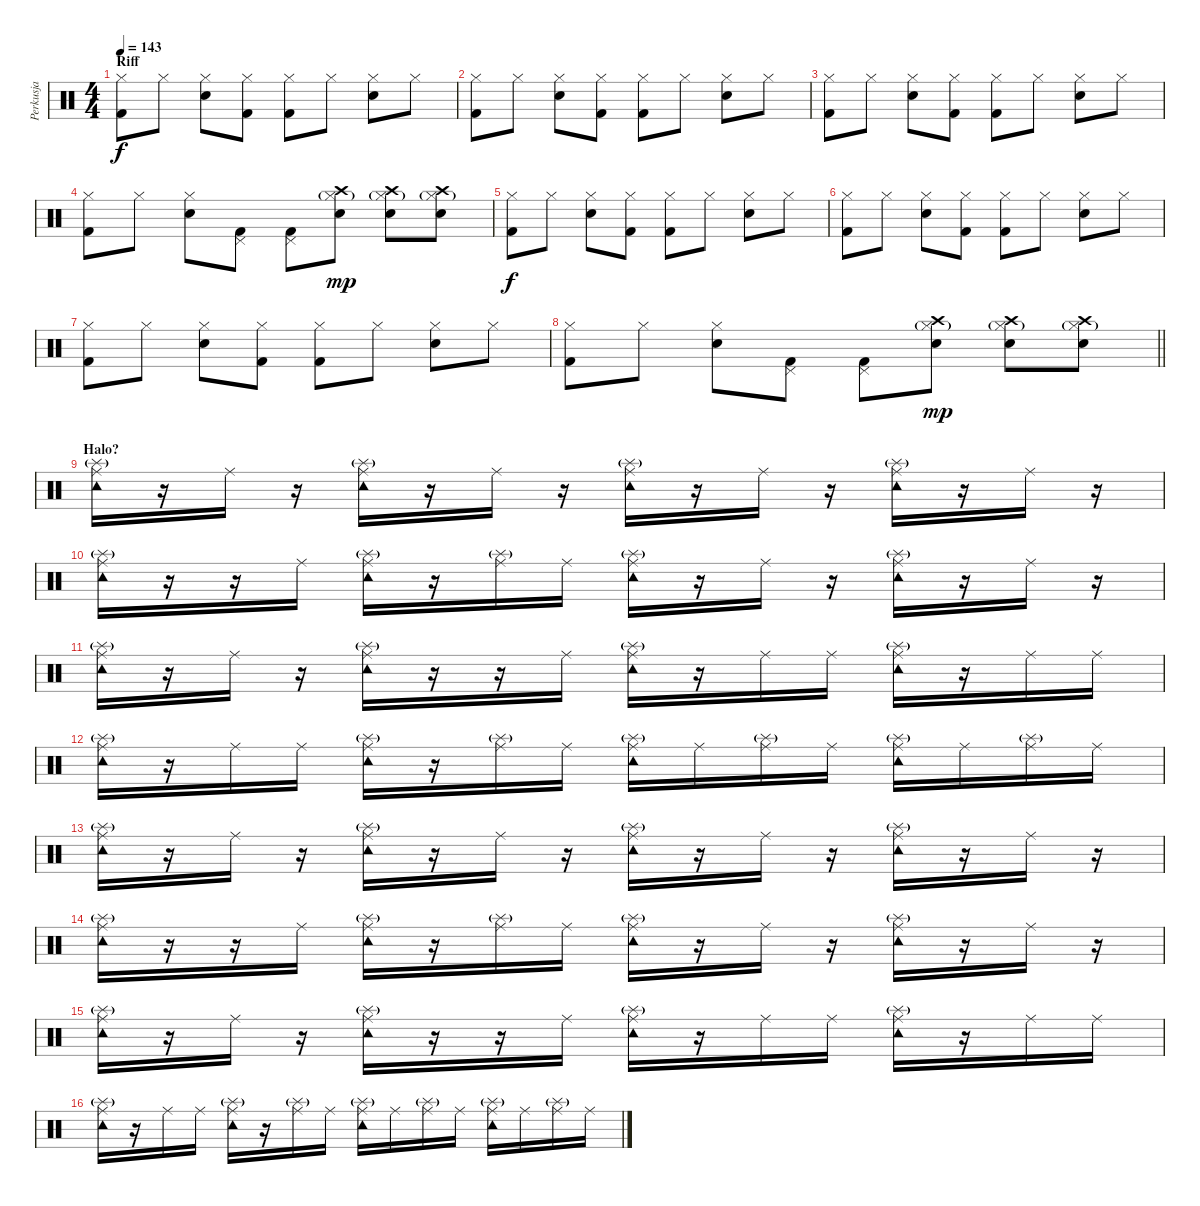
\track ("Perkusja" "Perkusja") {instrument percussion}
\staff {score}
\articulation defaults
\ts (4 4)
\section ("" "Riff")
\tempo 143
\clef neutral
\ks c
("Hi-Hat (closed)" "Kick (hit) 2").8{dy f} "Hi-Hat (closed)".8 ("Hi-Hat (closed)" "Electric Snare (hit)").8 ("Hi-Hat (closed)" "Kick (hit) 2").8 ("Hi-Hat (closed)" "Kick (hit) 2").8 "Hi-Hat (closed)".8 ("Hi-Hat (closed)" "Electric Snare (hit)").8 "Hi-Hat (closed)".8 |
("Hi-Hat (closed)" "Kick (hit) 2").8 "Hi-Hat (closed)".8 ("Hi-Hat (closed)" "Electric Snare (hit)").8 ("Hi-Hat (closed)" "Kick (hit) 2").8 ("Hi-Hat (closed)" "Kick (hit) 2").8 "Hi-Hat (closed)".8 ("Hi-Hat (closed)" "Electric Snare (hit)").8 "Hi-Hat (closed)".8 |
("Hi-Hat (closed)" "Kick (hit) 2").8 "Hi-Hat (closed)".8 ("Hi-Hat (closed)" "Electric Snare (hit)").8 ("Hi-Hat (closed)" "Kick (hit) 2").8 ("Hi-Hat (closed)" "Kick (hit) 2").8 "Hi-Hat (closed)".8 ("Hi-Hat (closed)" "Electric Snare (hit)").8 "Hi-Hat (closed)".8 |
("Hi-Hat (closed)" "Kick (hit) 2").8 "Hi-Hat (closed)".8 ("Hi-Hat (closed)" "Electric Snare (hit)").8 ("Pedal Hi-Hat (hit)" "Kick (hit) 2").8 ("Pedal Hi-Hat (hit)" "Kick (hit) 2").8 ("Crash high (hit)" "Hi-Hat (closed)"{g} "Snare (hit) 2").8{dy mp} ("Crash high (hit)" "Hi-Hat (closed)"{g} "Snare (hit) 2").8 ("Crash high (hit)" "Hi-Hat (closed)"{g} "Snare (hit) 2").8 |
("Hi-Hat (closed)" "Kick (hit) 2").8{dy f} "Hi-Hat (closed)".8 ("Hi-Hat (closed)" "Electric Snare (hit)").8 ("Hi-Hat (closed)" "Kick (hit) 2").8 ("Hi-Hat (closed)" "Kick (hit) 2").8 "Hi-Hat (closed)".8 ("Hi-Hat (closed)" "Electric Snare (hit)").8 "Hi-Hat (closed)".8 |
("Hi-Hat (closed)" "Kick (hit) 2").8 "Hi-Hat (closed)".8 ("Hi-Hat (closed)" "Electric Snare (hit)").8 ("Hi-Hat (closed)" "Kick (hit) 2").8 ("Hi-Hat (closed)" "Kick (hit) 2").8 "Hi-Hat (closed)".8 ("Hi-Hat (closed)" "Electric Snare (hit)").8 "Hi-Hat (closed)".8 |
("Hi-Hat (closed)" "Kick (hit) 2").8 "Hi-Hat (closed)".8 ("Hi-Hat (closed)" "Electric Snare (hit)").8 ("Hi-Hat (closed)" "Kick (hit) 2").8 ("Hi-Hat (closed)" "Kick (hit) 2").8 "Hi-Hat (closed)".8 ("Hi-Hat (closed)" "Electric Snare (hit)").8 "Hi-Hat (closed)".8 |
\barLineRight lightlight
("Hi-Hat (closed)" "Kick (hit) 2").8 "Hi-Hat (closed)".8 ("Hi-Hat (closed)" "Electric Snare (hit)").8 ("Pedal Hi-Hat (hit)" "Kick (hit) 2").8 ("Pedal Hi-Hat (hit)" "Kick (hit) 2").8 ("Crash high (hit)" "Hi-Hat (closed)"{g} "Snare (hit) 2").8{dy mp} ("Crash high (hit)" "Hi-Hat (closed)"{g} "Snare (hit) 2").8 ("Crash high (hit)" "Hi-Hat (closed)"{g} "Snare (hit) 2").8 |
\section ("" "Halo?")
("Ride (middle)" "Tambourine (hit)" "Splash (hit)"{g}).16 r.16 "Ride (middle)".16 r.16 ("Ride (middle)" "Tambourine (hit)" "Splash (hit)"{g}).16 r.16 "Ride (middle)".16 r.16 ("Ride (middle)" "Tambourine (hit)" "Splash (hit)"{g}).16 r.16 "Ride (middle)".16 r.16 ("Ride (middle)" "Tambourine (hit)" "Splash (hit)"{g}).16 r.16 "Ride (middle)".16 r.16 |
("Ride (middle)" "Tambourine (hit)" "Splash (hit)"{g}).16 r.16 r.16 "Ride (middle)".16 ("Ride (middle)" "Tambourine (hit)" "Splash (hit)"{g}).16 r.16 ("Ride (middle)" "Splash (hit)"{g}).16 "Ride (middle)".16 ("Ride (middle)" "Tambourine (hit)" "Splash (hit)"{g}).16 r.16 "Ride (middle)".16 r.16 ("Ride (middle)" "Tambourine (hit)" "Splash (hit)"{g}).16 r.16 "Ride (middle)".16 r.16 |
("Ride (middle)" "Tambourine (hit)" "Splash (hit)"{g}).16 r.16 "Ride (middle)".16 r.16 ("Ride (middle)" "Tambourine (hit)" "Splash (hit)"{g}).16 r.16 r.16 "Ride (middle)".16 ("Ride (middle)" "Tambourine (hit)" "Splash (hit)"{g}).16 r.16 "Ride (middle)".16 "Ride (middle)".16 ("Ride (middle)" "Tambourine (hit)" "Splash (hit)"{g}).16 r.16 "Ride (middle)".16 "Ride (middle)".16 |
("Ride (middle)" "Tambourine (hit)" "Splash (hit)"{g}).16 r.16 "Ride (middle)".16 "Ride (middle)".16 ("Ride (middle)" "Tambourine (hit)" "Splash (hit)"{g}).16 r.16 ("Ride (middle)" "Splash (hit)"{g}).16 "Ride (middle)".16 ("Ride (middle)" "Tambourine (hit)" "Splash (hit)"{g}).16 "Ride (middle)".16 ("Ride (middle)" "Splash (hit)"{g}).16 "Ride (middle)".16 ("Ride (middle)" "Tambourine (hit)" "Splash (hit)"{g}).16 "Ride (middle)".16 ("Ride (middle)" "Splash (hit)"{g}).16 "Ride (middle)".16 |
("Ride (middle)" "Tambourine (hit)" "Splash (hit)"{g}).16 r.16 "Ride (middle)".16 r.16 ("Ride (middle)" "Tambourine (hit)" "Splash (hit)"{g}).16 r.16 "Ride (middle)".16 r.16 ("Ride (middle)" "Tambourine (hit)" "Splash (hit)"{g}).16 r.16 "Ride (middle)".16 r.16 ("Ride (middle)" "Tambourine (hit)" "Splash (hit)"{g}).16 r.16 "Ride (middle)".16 r.16 |
("Ride (middle)" "Tambourine (hit)" "Splash (hit)"{g}).16 r.16 r.16 "Ride (middle)".16 ("Ride (middle)" "Tambourine (hit)" "Splash (hit)"{g}).16 r.16 ("Ride (middle)" "Splash (hit)"{g}).16 "Ride (middle)".16 ("Ride (middle)" "Tambourine (hit)" "Splash (hit)"{g}).16 r.16 "Ride (middle)".16 r.16 ("Ride (middle)" "Tambourine (hit)" "Splash (hit)"{g}).16 r.16 "Ride (middle)".16 r.16 |
("Ride (middle)" "Tambourine (hit)" "Splash (hit)"{g}).16 r.16 "Ride (middle)".16 r.16 ("Ride (middle)" "Tambourine (hit)" "Splash (hit)"{g}).16 r.16 r.16 "Ride (middle)".16 ("Ride (middle)" "Tambourine (hit)" "Splash (hit)"{g}).16 r.16 "Ride (middle)".16 "Ride (middle)".16 ("Ride (middle)" "Tambourine (hit)" "Splash (hit)"{g}).16 r.16 "Ride (middle)".16 "Ride (middle)".16 |
("Ride (middle)" "Tambourine (hit)" "Splash (hit)"{g}).16 r.16 "Ride (middle)".16 "Ride (middle)".16 ("Ride (middle)" "Tambourine (hit)" "Splash (hit)"{g}).16 r.16 ("Ride (middle)" "Splash (hit)"{g}).16 "Ride (middle)".16 ("Ride (middle)" "Tambourine (hit)" "Splash (hit)"{g}).16 "Ride (middle)".16 ("Ride (middle)" "Splash (hit)"{g}).16 "Ride (middle)".16 ("Ride (middle)" "Tambourine (hit)" "Splash (hit)"{g}).16 "Ride (middle)".16 ("Ride (middle)" "Splash (hit)"{g}).16 "Ride (middle)".16
